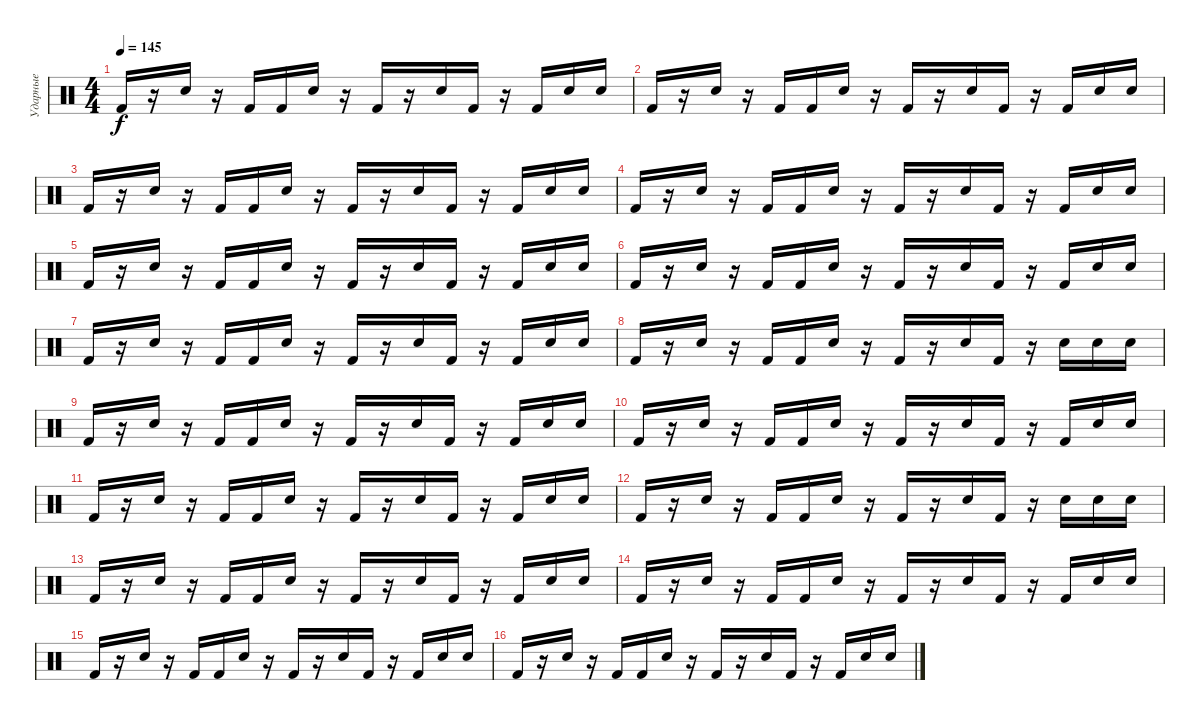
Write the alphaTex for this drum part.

\track ("Ударные" "Ударные") {instrument percussion}
\staff {score}
\articulation defaults
\ts (4 4)
\tempo 145
\clef neutral
\ks c "Kick (hit) 2".16{dy f}
r.16 "Electric Snare (hit)".16 r.16 "Kick (hit) 2".16 "Kick (hit) 2".16 "Electric Snare (hit)".16 r.16 "Kick (hit) 2".16 r.16 "Electric Snare (hit)".16 "Kick (hit) 2".16 r.16 "Kick (hit) 2".16 "Electric Snare (hit)".16 "Electric Snare (hit)".16 |
"Kick (hit) 2".16 r.16 "Electric Snare (hit)".16 r.16 "Kick (hit) 2".16 "Kick (hit) 2".16 "Electric Snare (hit)".16 r.16 "Kick (hit) 2".16 r.16 "Electric Snare (hit)".16 "Kick (hit) 2".16 r.16 "Kick (hit) 2".16 "Electric Snare (hit)".16 "Electric Snare (hit)".16 |
"Kick (hit) 2".16 r.16 "Electric Snare (hit)".16 r.16 "Kick (hit) 2".16 "Kick (hit) 2".16 "Electric Snare (hit)".16 r.16 "Kick (hit) 2".16 r.16 "Electric Snare (hit)".16 "Kick (hit) 2".16 r.16 "Kick (hit) 2".16 "Electric Snare (hit)".16 "Electric Snare (hit)".16 |
"Kick (hit) 2".16 r.16 "Electric Snare (hit)".16 r.16 "Kick (hit) 2".16 "Kick (hit) 2".16 "Electric Snare (hit)".16 r.16 "Kick (hit) 2".16 r.16 "Electric Snare (hit)".16 "Kick (hit) 2".16 r.16 "Kick (hit) 2".16 "Electric Snare (hit)".16 "Electric Snare (hit)".16 |
"Kick (hit) 2".16 r.16 "Electric Snare (hit)".16 r.16 "Kick (hit) 2".16 "Kick (hit) 2".16 "Electric Snare (hit)".16 r.16 "Kick (hit) 2".16 r.16 "Electric Snare (hit)".16 "Kick (hit) 2".16 r.16 "Kick (hit) 2".16 "Electric Snare (hit)".16 "Electric Snare (hit)".16 |
"Kick (hit) 2".16 r.16 "Electric Snare (hit)".16 r.16 "Kick (hit) 2".16 "Kick (hit) 2".16 "Electric Snare (hit)".16 r.16 "Kick (hit) 2".16 r.16 "Electric Snare (hit)".16 "Kick (hit) 2".16 r.16 "Kick (hit) 2".16 "Electric Snare (hit)".16 "Electric Snare (hit)".16 |
"Kick (hit) 2".16 r.16 "Electric Snare (hit)".16 r.16 "Kick (hit) 2".16 "Kick (hit) 2".16 "Electric Snare (hit)".16 r.16 "Kick (hit) 2".16 r.16 "Electric Snare (hit)".16 "Kick (hit) 2".16 r.16 "Kick (hit) 2".16 "Electric Snare (hit)".16 "Electric Snare (hit)".16 |
"Kick (hit) 2".16 r.16 "Electric Snare (hit)".16 r.16 "Kick (hit) 2".16 "Kick (hit) 2".16 "Electric Snare (hit)".16 r.16 "Kick (hit) 2".16 r.16 "Electric Snare (hit)".16 "Kick (hit) 2".16 r.16 "Electric Snare (hit)".16 "Electric Snare (hit)".16 "Electric Snare (hit)".16 |
"Kick (hit) 2".16 r.16 "Electric Snare (hit)".16 r.16 "Kick (hit) 2".16 "Kick (hit) 2".16 "Electric Snare (hit)".16 r.16 "Kick (hit) 2".16 r.16 "Electric Snare (hit)".16 "Kick (hit) 2".16 r.16 "Kick (hit) 2".16 "Electric Snare (hit)".16 "Electric Snare (hit)".16 |
"Kick (hit) 2".16 r.16 "Electric Snare (hit)".16 r.16 "Kick (hit) 2".16 "Kick (hit) 2".16 "Electric Snare (hit)".16 r.16 "Kick (hit) 2".16 r.16 "Electric Snare (hit)".16 "Kick (hit) 2".16 r.16 "Kick (hit) 2".16 "Electric Snare (hit)".16 "Electric Snare (hit)".16 |
"Kick (hit) 2".16 r.16 "Electric Snare (hit)".16 r.16 "Kick (hit) 2".16 "Kick (hit) 2".16 "Electric Snare (hit)".16 r.16 "Kick (hit) 2".16 r.16 "Electric Snare (hit)".16 "Kick (hit) 2".16 r.16 "Kick (hit) 2".16 "Electric Snare (hit)".16 "Electric Snare (hit)".16 |
"Kick (hit) 2".16 r.16 "Electric Snare (hit)".16 r.16 "Kick (hit) 2".16 "Kick (hit) 2".16 "Electric Snare (hit)".16 r.16 "Kick (hit) 2".16 r.16 "Electric Snare (hit)".16 "Kick (hit) 2".16 r.16 "Electric Snare (hit)".16 "Electric Snare (hit)".16 "Electric Snare (hit)".16 |
"Kick (hit) 2".16 r.16 "Electric Snare (hit)".16 r.16 "Kick (hit) 2".16 "Kick (hit) 2".16 "Electric Snare (hit)".16 r.16 "Kick (hit) 2".16 r.16 "Electric Snare (hit)".16 "Kick (hit) 2".16 r.16 "Kick (hit) 2".16 "Electric Snare (hit)".16 "Electric Snare (hit)".16 |
"Kick (hit) 2".16 r.16 "Electric Snare (hit)".16 r.16 "Kick (hit) 2".16 "Kick (hit) 2".16 "Electric Snare (hit)".16 r.16 "Kick (hit) 2".16 r.16 "Electric Snare (hit)".16 "Kick (hit) 2".16 r.16 "Kick (hit) 2".16 "Electric Snare (hit)".16 "Electric Snare (hit)".16 |
"Kick (hit) 2".16 r.16 "Electric Snare (hit)".16 r.16 "Kick (hit) 2".16 "Kick (hit) 2".16 "Electric Snare (hit)".16 r.16 "Kick (hit) 2".16 r.16 "Electric Snare (hit)".16 "Kick (hit) 2".16 r.16 "Kick (hit) 2".16 "Electric Snare (hit)".16 "Electric Snare (hit)".16 |
"Kick (hit) 2".16 r.16 "Electric Snare (hit)".16 r.16 "Kick (hit) 2".16 "Kick (hit) 2".16 "Electric Snare (hit)".16 r.16 "Kick (hit) 2".16 r.16 "Electric Snare (hit)".16 "Kick (hit) 2".16 r.16 "Kick (hit) 2".16 "Electric Snare (hit)".16 "Electric Snare (hit)".16
